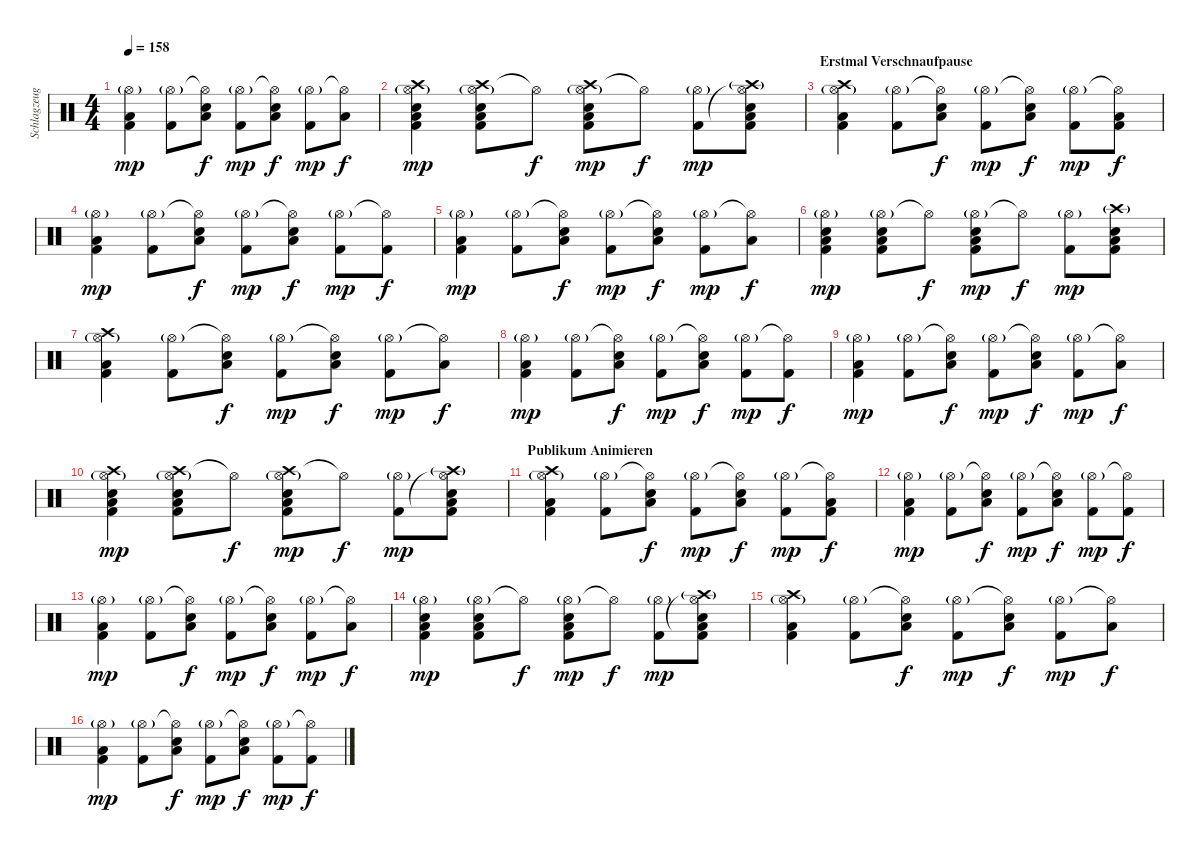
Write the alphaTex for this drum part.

\track ("Schlagzeug" "Schlagzeug") {instrument percussion}
\staff {score}
\articulation defaults
\ts (4 4)
\tempo 158
\clef neutral
\ks c
("Hi-Hat (open)"{g} "Low Floor Tom (hit)" "Kick (hit) 2").4{dy mp} ("Hi-Hat (open)"{g} "Kick (hit) 2").8 ("Hi-Hat (open)"{t} "Low Floor Tom (hit)" "Electric Snare (hit)").8{dy f} ("Hi-Hat (open)"{g} "Kick (hit) 2").8{dy mp} ("Hi-Hat (open)"{t} "Low Floor Tom (hit)" "Electric Snare (hit)").8{dy f} ("Hi-Hat (open)"{g} "Kick (hit) 2").8{dy mp} ("Hi-Hat (open)"{t} "Low Floor Tom (hit)").8{dy f} |
("Crash high (hit)" "Hi-Hat (open)"{g} "Low Floor Tom (hit)" "Electric Snare (hit)" "Kick (hit) 2").4{dy mp} ("Crash high (hit)" "Hi-Hat (open)"{g} "Low Floor Tom (hit)" "Electric Snare (hit)" "Kick (hit) 2").8 "Hi-Hat (open)"{t}.8{dy f} ("Crash high (hit)" "Hi-Hat (open)"{g} "Low Floor Tom (hit)" "Electric Snare (hit)" "Kick (hit) 2").8{dy mp} "Hi-Hat (open)"{t}.8{dy f} ("Hi-Hat (open)"{g} "Kick (hit) 2").8{dy mp} ("Crash high (hit)"{g} "Hi-Hat (open)"{t} "Low Floor Tom (hit)" "Electric Snare (hit)" "Kick (hit) 2").8 |
\section ("" "Erstmal Verschnaufpause")
("Crash high (hit)" "Hi-Hat (open)"{g} "Low Floor Tom (hit)" "Kick (hit) 2").4 ("Hi-Hat (open)"{g} "Kick (hit) 2").8 ("Hi-Hat (open)"{t} "Low Floor Tom (hit)" "Electric Snare (hit)").8{dy f} ("Hi-Hat (open)"{g} "Kick (hit) 2").8{dy mp} ("Hi-Hat (open)"{t} "Low Floor Tom (hit)" "Electric Snare (hit)").8{dy f} ("Hi-Hat (open)"{g} "Kick (hit) 2").8{dy mp} ("Hi-Hat (open)"{t} "Low Floor Tom (hit)" "Kick (hit) 2").8{dy f} |
("Hi-Hat (open)"{g} "Low Floor Tom (hit)" "Kick (hit) 2").4{dy mp} ("Hi-Hat (open)"{g} "Kick (hit) 2").8 ("Hi-Hat (open)"{t} "Low Floor Tom (hit)" "Electric Snare (hit)").8{dy f} ("Hi-Hat (open)"{g} "Kick (hit) 2").8{dy mp} ("Hi-Hat (open)"{t} "Low Floor Tom (hit)" "Electric Snare (hit)").8{dy f} ("Hi-Hat (open)"{g} "Kick (hit) 2").8{dy mp} ("Hi-Hat (open)"{t} "Kick (hit) 2").8{dy f} |
("Hi-Hat (open)"{g} "Low Floor Tom (hit)" "Kick (hit) 2").4{dy mp} ("Hi-Hat (open)"{g} "Kick (hit) 2").8 ("Hi-Hat (open)"{t} "Low Floor Tom (hit)" "Electric Snare (hit)").8{dy f} ("Hi-Hat (open)"{g} "Kick (hit) 2").8{dy mp} ("Hi-Hat (open)"{t} "Low Floor Tom (hit)" "Electric Snare (hit)").8{dy f} ("Hi-Hat (open)"{g} "Kick (hit) 2").8{dy mp} ("Hi-Hat (open)"{t} "Low Floor Tom (hit)").8{dy f} |
("Hi-Hat (open)"{g} "Low Floor Tom (hit)" "Electric Snare (hit)" "Kick (hit) 2").4{dy mp} ("Hi-Hat (open)"{g} "Low Floor Tom (hit)" "Electric Snare (hit)" "Kick (hit) 2").8 "Hi-Hat (open)"{t}.8{dy f} ("Hi-Hat (open)"{g} "Low Floor Tom (hit)" "Electric Snare (hit)" "Kick (hit) 2").8{dy mp} "Hi-Hat (open)"{t}.8{dy f} ("Hi-Hat (open)"{g} "Kick (hit) 2").8{dy mp} ("Crash high (hit)"{g} "Low Floor Tom (hit)" "Electric Snare (hit)" "Kick (hit) 2").8 |
("Crash high (hit)" "Hi-Hat (open)"{g} "Low Floor Tom (hit)" "Kick (hit) 2").4 ("Hi-Hat (open)"{g} "Kick (hit) 2").8 ("Hi-Hat (open)"{t} "Low Floor Tom (hit)" "Electric Snare (hit)").8{dy f} ("Hi-Hat (open)"{g} "Kick (hit) 2").8{dy mp} ("Hi-Hat (open)"{t} "Low Floor Tom (hit)" "Electric Snare (hit)").8{dy f} ("Hi-Hat (open)"{g} "Kick (hit) 2").8{dy mp} ("Hi-Hat (open)"{t} "Low Floor Tom (hit)").8{dy f} |
("Hi-Hat (open)"{g} "Low Floor Tom (hit)" "Kick (hit) 2").4{dy mp} ("Hi-Hat (open)"{g} "Kick (hit) 2").8 ("Hi-Hat (open)"{t} "Low Floor Tom (hit)" "Electric Snare (hit)").8{dy f} ("Hi-Hat (open)"{g} "Kick (hit) 2").8{dy mp} ("Hi-Hat (open)"{t} "Low Floor Tom (hit)" "Electric Snare (hit)").8{dy f} ("Hi-Hat (open)"{g} "Kick (hit) 2").8{dy mp} ("Hi-Hat (open)"{t} "Kick (hit) 2").8{dy f} |
("Hi-Hat (open)"{g} "Low Floor Tom (hit)" "Kick (hit) 2").4{dy mp} ("Hi-Hat (open)"{g} "Kick (hit) 2").8 ("Hi-Hat (open)"{t} "Low Floor Tom (hit)" "Electric Snare (hit)").8{dy f} ("Hi-Hat (open)"{g} "Kick (hit) 2").8{dy mp} ("Hi-Hat (open)"{t} "Low Floor Tom (hit)" "Electric Snare (hit)").8{dy f} ("Hi-Hat (open)"{g} "Kick (hit) 2").8{dy mp} ("Hi-Hat (open)"{t} "Low Floor Tom (hit)").8{dy f} |
("Crash high (hit)" "Hi-Hat (open)"{g} "Low Floor Tom (hit)" "Electric Snare (hit)" "Kick (hit) 2").4{dy mp} ("Crash high (hit)" "Hi-Hat (open)"{g} "Low Floor Tom (hit)" "Electric Snare (hit)" "Kick (hit) 2").8 "Hi-Hat (open)"{t}.8{dy f} ("Crash high (hit)" "Hi-Hat (open)"{g} "Low Floor Tom (hit)" "Electric Snare (hit)" "Kick (hit) 2").8{dy mp} "Hi-Hat (open)"{t}.8{dy f} ("Hi-Hat (open)"{g} "Kick (hit) 2").8{dy mp} ("Crash high (hit)"{g} "Hi-Hat (open)"{t} "Low Floor Tom (hit)" "Electric Snare (hit)" "Kick (hit) 2").8 |
\section ("" "Publikum Animieren")
("Crash high (hit)" "Hi-Hat (open)"{g} "Low Floor Tom (hit)" "Kick (hit) 2").4 ("Hi-Hat (open)"{g} "Kick (hit) 2").8 ("Hi-Hat (open)"{t} "Low Floor Tom (hit)" "Electric Snare (hit)").8{dy f} ("Hi-Hat (open)"{g} "Kick (hit) 2").8{dy mp} ("Hi-Hat (open)"{t} "Low Floor Tom (hit)" "Electric Snare (hit)").8{dy f} ("Hi-Hat (open)"{g} "Kick (hit) 2").8{dy mp} ("Hi-Hat (open)"{t} "Low Floor Tom (hit)" "Kick (hit) 2").8{dy f} |
("Hi-Hat (open)"{g} "Low Floor Tom (hit)" "Kick (hit) 2").4{dy mp} ("Hi-Hat (open)"{g} "Kick (hit) 2").8 ("Hi-Hat (open)"{t} "Low Floor Tom (hit)" "Electric Snare (hit)").8{dy f} ("Hi-Hat (open)"{g} "Kick (hit) 2").8{dy mp} ("Hi-Hat (open)"{t} "Low Floor Tom (hit)" "Electric Snare (hit)").8{dy f} ("Hi-Hat (open)"{g} "Kick (hit) 2").8{dy mp} ("Hi-Hat (open)"{t} "Kick (hit) 2").8{dy f} |
("Hi-Hat (open)"{g} "Low Floor Tom (hit)" "Kick (hit) 2").4{dy mp} ("Hi-Hat (open)"{g} "Kick (hit) 2").8 ("Hi-Hat (open)"{t} "Low Floor Tom (hit)" "Electric Snare (hit)").8{dy f} ("Hi-Hat (open)"{g} "Kick (hit) 2").8{dy mp} ("Hi-Hat (open)"{t} "Low Floor Tom (hit)" "Electric Snare (hit)").8{dy f} ("Hi-Hat (open)"{g} "Kick (hit) 2").8{dy mp} ("Hi-Hat (open)"{t} "Low Floor Tom (hit)").8{dy f} |
("Hi-Hat (open)"{g} "Low Floor Tom (hit)" "Electric Snare (hit)" "Kick (hit) 2").4{dy mp} ("Hi-Hat (open)"{g} "Low Floor Tom (hit)" "Electric Snare (hit)" "Kick (hit) 2").8 "Hi-Hat (open)"{t}.8{dy f} ("Hi-Hat (open)"{g} "Low Floor Tom (hit)" "Electric Snare (hit)" "Kick (hit) 2").8{dy mp} "Hi-Hat (open)"{t}.8{dy f} ("Hi-Hat (open)"{g} "Kick (hit) 2").8{dy mp} ("Crash high (hit)"{g} "Hi-Hat (open)"{t} "Low Floor Tom (hit)" "Electric Snare (hit)" "Kick (hit) 2").8 |
("Crash high (hit)" "Hi-Hat (open)"{g} "Low Floor Tom (hit)" "Kick (hit) 2").4 ("Hi-Hat (open)"{g} "Kick (hit) 2").8 ("Hi-Hat (open)"{t} "Low Floor Tom (hit)" "Electric Snare (hit)").8{dy f} ("Hi-Hat (open)"{g} "Kick (hit) 2").8{dy mp} ("Hi-Hat (open)"{t} "Low Floor Tom (hit)" "Electric Snare (hit)").8{dy f} ("Hi-Hat (open)"{g} "Kick (hit) 2").8{dy mp} ("Hi-Hat (open)"{t} "Low Floor Tom (hit)").8{dy f} |
("Hi-Hat (open)"{g} "Low Floor Tom (hit)" "Kick (hit) 2").4{dy mp} ("Hi-Hat (open)"{g} "Kick (hit) 2").8 ("Hi-Hat (open)"{t} "Low Floor Tom (hit)" "Electric Snare (hit)").8{dy f} ("Hi-Hat (open)"{g} "Kick (hit) 2").8{dy mp} ("Hi-Hat (open)"{t} "Low Floor Tom (hit)" "Electric Snare (hit)").8{dy f} ("Hi-Hat (open)"{g} "Kick (hit) 2").8{dy mp} ("Hi-Hat (open)"{t} "Kick (hit) 2").8{dy f}
